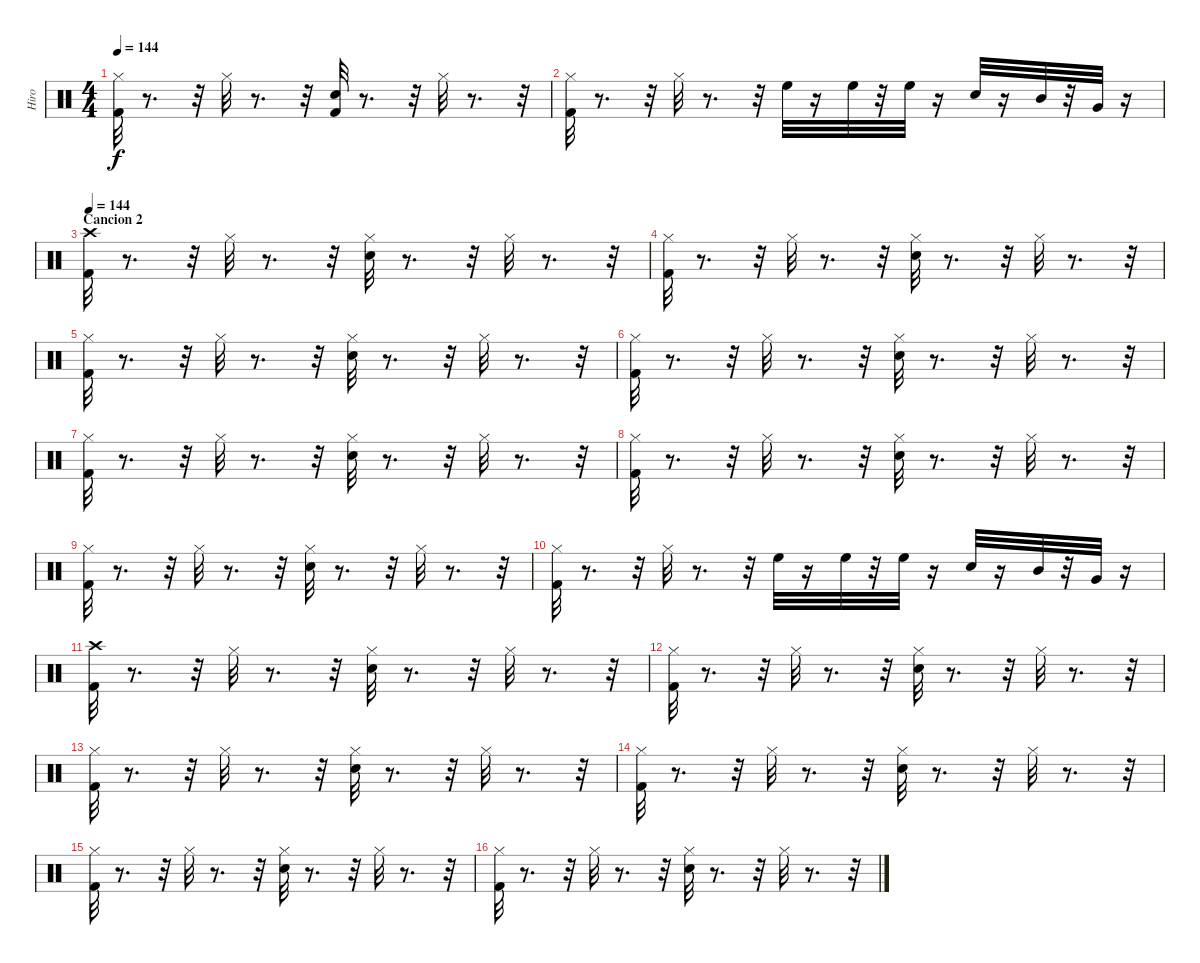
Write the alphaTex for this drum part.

\track ("Hiro" "Hiro") {instrument percussion}
\staff {score}
\articulation defaults
\ts (4 4)
\tempo 144
\clef neutral
\ks c
("Hi-Hat (closed)" "Kick (hit) 2").32{dy f} r.8{d} r.32 "Hi-Hat (closed)".32 r.8{d} r.32 ("Kick (hit) 2" "Snare (hit) 2").32 r.8{d} r.32 "Hi-Hat (closed)".32 r.8{d} r.32 |
("Hi-Hat (closed)" "Kick (hit) 2").32 r.8{d} r.32 "Hi-Hat (closed)".32 r.8{d} r.32 "High Floor Tom (hit)".32 r.16 "High Floor Tom (hit)".32 r.32 "High Floor Tom (hit)".32 r.16 "Snare (hit) 2".32 r.16 "Mid Tom (hit)".32 r.32 "Very Low Tom (hit)".32 r.16 |
\section ("" "Cancion 2")
\tempo 144
("Crash high (hit)" "Kick (hit) 2").32 r.8{d} r.32 "Hi-Hat (closed)".32 r.8{d} r.32 ("Hi-Hat (closed)" "Snare (hit) 2").32 r.8{d} r.32 "Hi-Hat (closed)".32 r.8{d} r.32 |
("Kick (hit) 2" "Hi-Hat (closed)").32 r.8{d} r.32 "Hi-Hat (closed)".32 r.8{d} r.32 ("Snare (hit) 2" "Hi-Hat (closed)").32 r.8{d} r.32 "Hi-Hat (closed)".32 r.8{d} r.32 |
("Hi-Hat (closed)" "Kick (hit) 2").32 r.8{d} r.32 "Hi-Hat (closed)".32 r.8{d} r.32 ("Hi-Hat (closed)" "Snare (hit) 2").32 r.8{d} r.32 "Hi-Hat (closed)".32 r.8{d} r.32 |
("Hi-Hat (closed)" "Kick (hit) 2").32 r.8{d} r.32 "Hi-Hat (closed)".32 r.8{d} r.32 ("Hi-Hat (closed)" "Snare (hit) 2").32 r.8{d} r.32 "Hi-Hat (closed)".32 r.8{d} r.32 |
("Hi-Hat (closed)" "Kick (hit) 2").32 r.8{d} r.32 "Hi-Hat (closed)".32 r.8{d} r.32 ("Hi-Hat (closed)" "Snare (hit) 2").32 r.8{d} r.32 "Hi-Hat (closed)".32 r.8{d} r.32 |
("Hi-Hat (closed)" "Kick (hit) 2").32 r.8{d} r.32 "Hi-Hat (closed)".32 r.8{d} r.32 ("Hi-Hat (closed)" "Snare (hit) 2").32 r.8{d} r.32 "Hi-Hat (closed)".32 r.8{d} r.32 |
("Hi-Hat (closed)" "Kick (hit) 2").32 r.8{d} r.32 "Hi-Hat (closed)".32 r.8{d} r.32 ("Hi-Hat (closed)" "Snare (hit) 2").32 r.8{d} r.32 "Hi-Hat (closed)".32 r.8{d} r.32 |
("Kick (hit) 2" "Hi-Hat (closed)").32 r.8{d} r.32 "Hi-Hat (closed)".32 r.8{d} r.32 "High Floor Tom (hit)".32 r.16 "High Floor Tom (hit)".32 r.32 "High Floor Tom (hit)".32 r.16 "Snare (hit) 2".32 r.16 "Mid Tom (hit)".32 r.32 "Very Low Tom (hit)".32 r.16 |
("Crash high (hit)" "Kick (hit) 2").32 r.8{d} r.32 "Hi-Hat (closed)".32 r.8{d} r.32 ("Hi-Hat (closed)" "Snare (hit) 2").32 r.8{d} r.32 "Hi-Hat (closed)".32 r.8{d} r.32 |
("Kick (hit) 2" "Hi-Hat (closed)").32 r.8{d} r.32 "Hi-Hat (closed)".32 r.8{d} r.32 ("Snare (hit) 2" "Hi-Hat (closed)").32 r.8{d} r.32 "Hi-Hat (closed)".32 r.8{d} r.32 |
("Kick (hit) 2" "Hi-Hat (closed)").32 r.8{d} r.32 "Hi-Hat (closed)".32 r.8{d} r.32 ("Snare (hit) 2" "Hi-Hat (closed)").32 r.8{d} r.32 "Hi-Hat (closed)".32 r.8{d} r.32 |
("Kick (hit) 2" "Hi-Hat (closed)").32 r.8{d} r.32 "Hi-Hat (closed)".32 r.8{d} r.32 ("Snare (hit) 2" "Hi-Hat (closed)").32 r.8{d} r.32 "Hi-Hat (closed)".32 r.8{d} r.32 |
("Kick (hit) 2" "Hi-Hat (closed)").32 r.8{d} r.32 "Hi-Hat (closed)".32 r.8{d} r.32 ("Snare (hit) 2" "Hi-Hat (closed)").32 r.8{d} r.32 "Hi-Hat (closed)".32 r.8{d} r.32 |
("Hi-Hat (closed)" "Kick (hit) 2").32 r.8{d} r.32 "Hi-Hat (closed)".32 r.8{d} r.32 ("Snare (hit) 2" "Hi-Hat (closed)").32 r.8{d} r.32 "Hi-Hat (closed)".32 r.8{d} r.32
